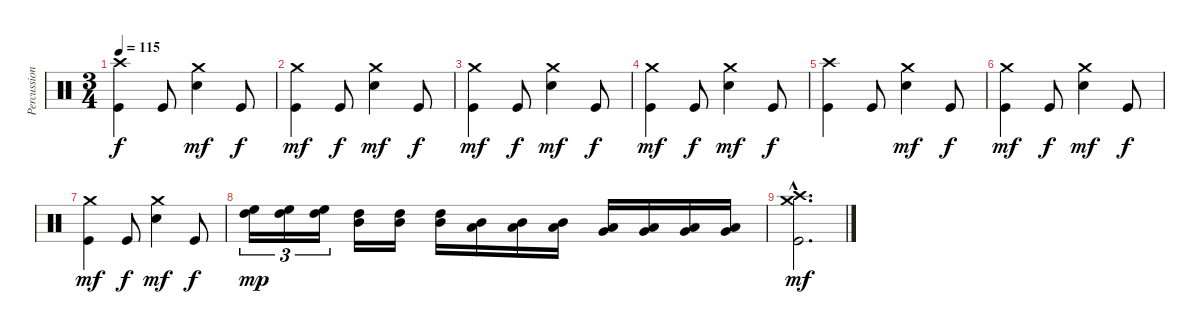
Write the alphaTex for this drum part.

\track ("Percussions" "Percussion") {instrument percussion}
\staff {score}
\articulation defaults
\ts (3 4)
\tempo 115
\clef neutral
\ks c
("Kick (hit)" "Crash high (hit)").4{dy f} "Kick (hit)".8 ("Electric Snare (hit)" "Crash medium (hit)").4{dy mf} "Kick (hit)".8{dy f} |
("Kick (hit)" "Crash medium (hit)").4{dy mf} "Kick (hit)".8{dy f} ("Electric Snare (hit)" "Crash medium (hit)").4{dy mf} "Kick (hit)".8{dy f} |
("Kick (hit)" "Crash medium (hit)").4{dy mf} "Kick (hit)".8{dy f} ("Electric Snare (hit)" "Crash medium (hit)").4{dy mf} "Kick (hit)".8{dy f} |
("Kick (hit)" "Crash medium (hit)").4{dy mf} "Kick (hit)".8{dy f} ("Electric Snare (hit)" "Crash medium (hit)").4{dy mf} "Kick (hit)".8{dy f} |
("Kick (hit)" "Crash high (hit)").4 "Kick (hit)".8 ("Electric Snare (hit)" "Crash medium (hit)").4{dy mf} "Kick (hit)".8{dy f} |
("Kick (hit)" "Crash medium (hit)").4{dy mf} "Kick (hit)".8{dy f} ("Electric Snare (hit)" "Crash medium (hit)").4{dy mf} "Kick (hit)".8{dy f} |
("Kick (hit)" "Crash medium (hit)").4{dy mf} "Kick (hit)".8{dy f} ("Electric Snare (hit)" "Crash medium (hit)").4{dy mf} "Kick (hit)".8{dy f} |
("High Tom (hit)" "High Floor Tom (hit)").16{tu (3 2) dy mp} ("High Tom (hit)" "High Floor Tom (hit)").16{tu (3 2)} ("High Tom (hit)" "High Floor Tom (hit)").16{tu (3 2)} ("Mid Tom (hit)" "High Tom (hit)").16 ("Mid Tom (hit)" "High Tom (hit)").16 ("Mid Tom (hit)" "High Tom (hit)").16 ("Low Tom (hit)" "Mid Tom (hit)").16 ("Low Tom (hit)" "Mid Tom (hit)").16 ("Low Tom (hit)" "Mid Tom (hit)").16 ("Very Low Tom (hit)" "Low Tom (hit)").16 ("Very Low Tom (hit)" "Low Tom (hit)").16 ("Very Low Tom (hit)" "Low Tom (hit)").16 ("Low Floor Tom (hit)" "Very Low Tom (hit)").16 |
("Kick (hit)"{hac} "Crash high (hit)"{hac} "Crash medium (hit)"{hac}).2{d dy mf}
